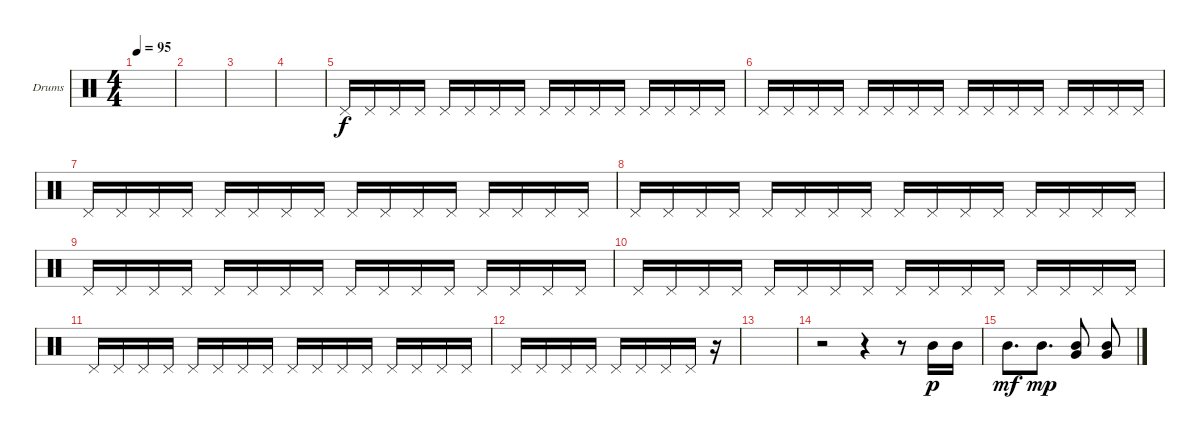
\defaultSystemsLayout 4
\bracketExtendMode groupsimilarinstruments
\firstSystemTrackNameOrientation horizontal
\otherSystemsTrackNameOrientation horizontal
\track ("Drumkit" "Drums") {instrument percussion}
\staff {score}
\articulation defaults
\ts (4 4)
\tempo 95
\clef neutral
\ks c
|
|
|
|
"Pedal Hi-Hat (hit)".16 "Pedal Hi-Hat (hit)".16 "Pedal Hi-Hat (hit)".16 "Pedal Hi-Hat (hit)".16 "Pedal Hi-Hat (hit)".16 "Pedal Hi-Hat (hit)".16 "Pedal Hi-Hat (hit)".16 "Pedal Hi-Hat (hit)".16 "Pedal Hi-Hat (hit)".16 "Pedal Hi-Hat (hit)".16 "Pedal Hi-Hat (hit)".16 "Pedal Hi-Hat (hit)".16 "Pedal Hi-Hat (hit)".16 "Pedal Hi-Hat (hit)".16 "Pedal Hi-Hat (hit)".16 "Pedal Hi-Hat (hit)".16 |
"Pedal Hi-Hat (hit)".16 "Pedal Hi-Hat (hit)".16 "Pedal Hi-Hat (hit)".16 "Pedal Hi-Hat (hit)".16 "Pedal Hi-Hat (hit)".16 "Pedal Hi-Hat (hit)".16 "Pedal Hi-Hat (hit)".16 "Pedal Hi-Hat (hit)".16 "Pedal Hi-Hat (hit)".16 "Pedal Hi-Hat (hit)".16 "Pedal Hi-Hat (hit)".16 "Pedal Hi-Hat (hit)".16 "Pedal Hi-Hat (hit)".16 "Pedal Hi-Hat (hit)".16 "Pedal Hi-Hat (hit)".16 "Pedal Hi-Hat (hit)".16 |
"Pedal Hi-Hat (hit)".16 "Pedal Hi-Hat (hit)".16 "Pedal Hi-Hat (hit)".16 "Pedal Hi-Hat (hit)".16 "Pedal Hi-Hat (hit)".16 "Pedal Hi-Hat (hit)".16 "Pedal Hi-Hat (hit)".16 "Pedal Hi-Hat (hit)".16 "Pedal Hi-Hat (hit)".16 "Pedal Hi-Hat (hit)".16 "Pedal Hi-Hat (hit)".16 "Pedal Hi-Hat (hit)".16 "Pedal Hi-Hat (hit)".16 "Pedal Hi-Hat (hit)".16 "Pedal Hi-Hat (hit)".16 "Pedal Hi-Hat (hit)".16 |
"Pedal Hi-Hat (hit)".16 "Pedal Hi-Hat (hit)".16 "Pedal Hi-Hat (hit)".16 "Pedal Hi-Hat (hit)".16 "Pedal Hi-Hat (hit)".16 "Pedal Hi-Hat (hit)".16 "Pedal Hi-Hat (hit)".16 "Pedal Hi-Hat (hit)".16 "Pedal Hi-Hat (hit)".16 "Pedal Hi-Hat (hit)".16 "Pedal Hi-Hat (hit)".16 "Pedal Hi-Hat (hit)".16 "Pedal Hi-Hat (hit)".16 "Pedal Hi-Hat (hit)".16 "Pedal Hi-Hat (hit)".16 "Pedal Hi-Hat (hit)".16 |
"Pedal Hi-Hat (hit)".16 "Pedal Hi-Hat (hit)".16 "Pedal Hi-Hat (hit)".16 "Pedal Hi-Hat (hit)".16 "Pedal Hi-Hat (hit)".16 "Pedal Hi-Hat (hit)".16 "Pedal Hi-Hat (hit)".16 "Pedal Hi-Hat (hit)".16 "Pedal Hi-Hat (hit)".16 "Pedal Hi-Hat (hit)".16 "Pedal Hi-Hat (hit)".16 "Pedal Hi-Hat (hit)".16 "Pedal Hi-Hat (hit)".16 "Pedal Hi-Hat (hit)".16 "Pedal Hi-Hat (hit)".16 "Pedal Hi-Hat (hit)".16 |
"Pedal Hi-Hat (hit)".16 "Pedal Hi-Hat (hit)".16 "Pedal Hi-Hat (hit)".16 "Pedal Hi-Hat (hit)".16 "Pedal Hi-Hat (hit)".16 "Pedal Hi-Hat (hit)".16 "Pedal Hi-Hat (hit)".16 "Pedal Hi-Hat (hit)".16 "Pedal Hi-Hat (hit)".16 "Pedal Hi-Hat (hit)".16 "Pedal Hi-Hat (hit)".16 "Pedal Hi-Hat (hit)".16 "Pedal Hi-Hat (hit)".16 "Pedal Hi-Hat (hit)".16 "Pedal Hi-Hat (hit)".16 "Pedal Hi-Hat (hit)".16 |
"Pedal Hi-Hat (hit)".16 "Pedal Hi-Hat (hit)".16 "Pedal Hi-Hat (hit)".16 "Pedal Hi-Hat (hit)".16 "Pedal Hi-Hat (hit)".16 "Pedal Hi-Hat (hit)".16 "Pedal Hi-Hat (hit)".16 "Pedal Hi-Hat (hit)".16 "Pedal Hi-Hat (hit)".16 "Pedal Hi-Hat (hit)".16 "Pedal Hi-Hat (hit)".16 "Pedal Hi-Hat (hit)".16 "Pedal Hi-Hat (hit)".16 "Pedal Hi-Hat (hit)".16 "Pedal Hi-Hat (hit)".16 "Pedal Hi-Hat (hit)".16 |
"Pedal Hi-Hat (hit)".16 "Pedal Hi-Hat (hit)".16 "Pedal Hi-Hat (hit)".16 "Pedal Hi-Hat (hit)".16 "Pedal Hi-Hat (hit)".16 "Pedal Hi-Hat (hit)".16 "Pedal Hi-Hat (hit)".16 "Pedal Hi-Hat (hit)".16 r.16 |
|
r.2 r.4 r.8 "Mid Tom (hit)".16{dy p} "Mid Tom (hit)".16 |
"Mid Tom (hit)".8{d dy mf} "Mid Tom (hit)".8{d dy mp} ("Mid Tom (hit)" "Very Low Tom (hit)").8 ("Mid Tom (hit)" "Very Low Tom (hit)").8
